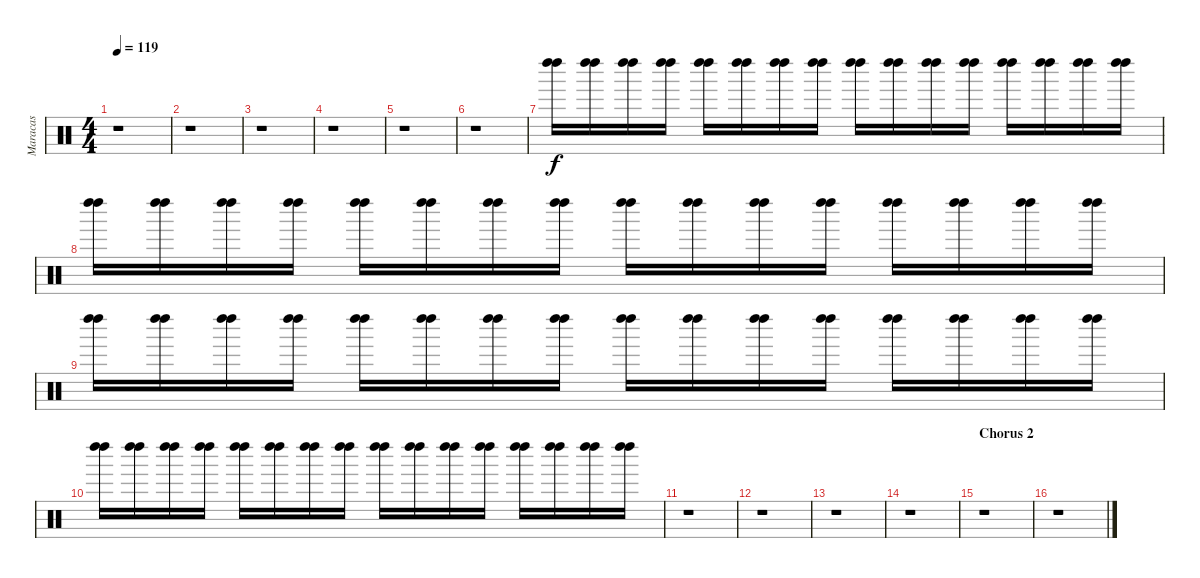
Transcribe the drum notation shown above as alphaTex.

\track ("Maracas" "Maracas") {instrument percussion}
\staff {score}
\articulation defaults
\ts (4 4)
\tempo 119
\clef neutral
\ks c
r.1{dy f} |
r.1 |
r.1 |
r.1 |
r.1 |
r.1 |
("Left Maraca (hit)" "Left Maraca (hit)").16 ("Left Maraca (hit)" "Left Maraca (hit)").16 ("Left Maraca (hit)" "Left Maraca (hit)").16 ("Left Maraca (hit)" "Left Maraca (hit)").16 ("Left Maraca (hit)" "Left Maraca (hit)").16 ("Left Maraca (hit)" "Left Maraca (hit)").16 ("Left Maraca (hit)" "Left Maraca (hit)").16 ("Left Maraca (hit)" "Left Maraca (hit)").16 ("Left Maraca (hit)" "Left Maraca (hit)").16 ("Left Maraca (hit)" "Left Maraca (hit)").16 ("Left Maraca (hit)" "Left Maraca (hit)").16 ("Left Maraca (hit)" "Left Maraca (hit)").16 ("Left Maraca (hit)" "Left Maraca (hit)").16 ("Left Maraca (hit)" "Left Maraca (hit)").16 ("Left Maraca (hit)" "Left Maraca (hit)").16 ("Left Maraca (hit)" "Left Maraca (hit)").16 |
("Left Maraca (hit)" "Left Maraca (hit)").16 ("Left Maraca (hit)" "Left Maraca (hit)").16 ("Left Maraca (hit)" "Left Maraca (hit)").16 ("Left Maraca (hit)" "Left Maraca (hit)").16 ("Left Maraca (hit)" "Left Maraca (hit)").16 ("Left Maraca (hit)" "Left Maraca (hit)").16 ("Left Maraca (hit)" "Left Maraca (hit)").16 ("Left Maraca (hit)" "Left Maraca (hit)").16 ("Left Maraca (hit)" "Left Maraca (hit)").16 ("Left Maraca (hit)" "Left Maraca (hit)").16 ("Left Maraca (hit)" "Left Maraca (hit)").16 ("Left Maraca (hit)" "Left Maraca (hit)").16 ("Left Maraca (hit)" "Left Maraca (hit)").16 ("Left Maraca (hit)" "Left Maraca (hit)").16 ("Left Maraca (hit)" "Left Maraca (hit)").16 ("Left Maraca (hit)" "Left Maraca (hit)").16 |
("Left Maraca (hit)" "Left Maraca (hit)").16 ("Left Maraca (hit)" "Left Maraca (hit)").16 ("Left Maraca (hit)" "Left Maraca (hit)").16 ("Left Maraca (hit)" "Left Maraca (hit)").16 ("Left Maraca (hit)" "Left Maraca (hit)").16 ("Left Maraca (hit)" "Left Maraca (hit)").16 ("Left Maraca (hit)" "Left Maraca (hit)").16 ("Left Maraca (hit)" "Left Maraca (hit)").16 ("Left Maraca (hit)" "Left Maraca (hit)").16 ("Left Maraca (hit)" "Left Maraca (hit)").16 ("Left Maraca (hit)" "Left Maraca (hit)").16 ("Left Maraca (hit)" "Left Maraca (hit)").16 ("Left Maraca (hit)" "Left Maraca (hit)").16 ("Left Maraca (hit)" "Left Maraca (hit)").16 ("Left Maraca (hit)" "Left Maraca (hit)").16 ("Left Maraca (hit)" "Left Maraca (hit)").16 |
("Left Maraca (hit)" "Left Maraca (hit)").16 ("Left Maraca (hit)" "Left Maraca (hit)").16 ("Left Maraca (hit)" "Left Maraca (hit)").16 ("Left Maraca (hit)" "Left Maraca (hit)").16 ("Left Maraca (hit)" "Left Maraca (hit)").16 ("Left Maraca (hit)" "Left Maraca (hit)").16 ("Left Maraca (hit)" "Left Maraca (hit)").16 ("Left Maraca (hit)" "Left Maraca (hit)").16 ("Left Maraca (hit)" "Left Maraca (hit)").16 ("Left Maraca (hit)" "Left Maraca (hit)").16 ("Left Maraca (hit)" "Left Maraca (hit)").16 ("Left Maraca (hit)" "Left Maraca (hit)").16 ("Left Maraca (hit)" "Left Maraca (hit)").16 ("Left Maraca (hit)" "Left Maraca (hit)").16 ("Left Maraca (hit)" "Left Maraca (hit)").16 ("Left Maraca (hit)" "Left Maraca (hit)").16 |
r.1 |
r.1 |
r.1 |
r.1 |
\section ("" "Chorus 2")
r.1 |
r.1
